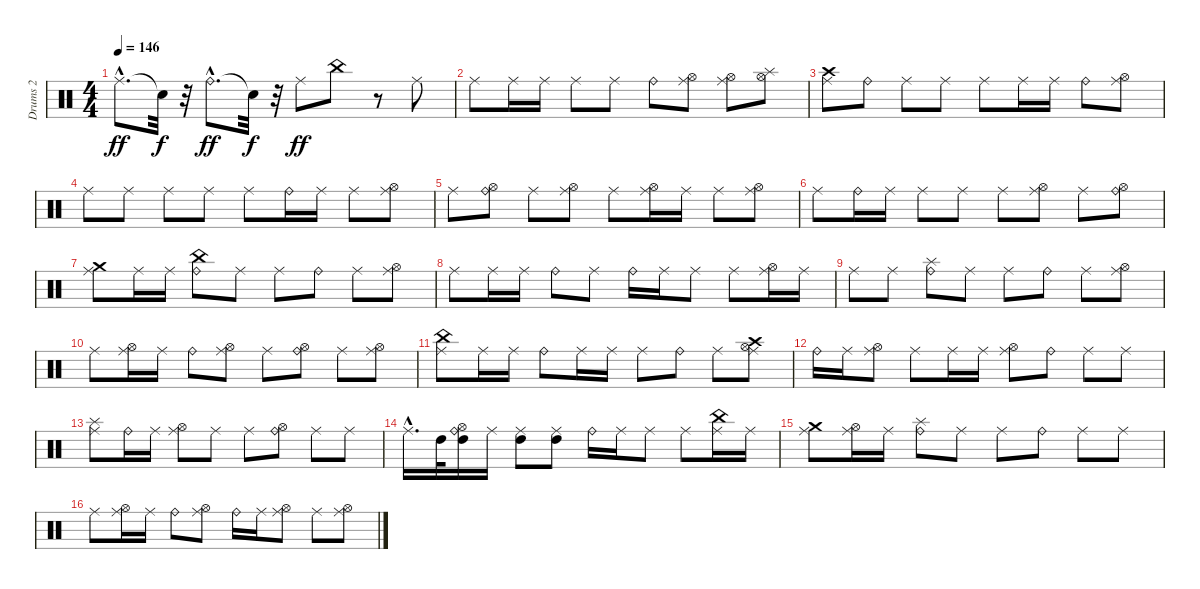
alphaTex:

\track ("Drums 2" "Drums 2") {instrument percussion}
\staff {score}
\articulation defaults
\ts (4 4)
\tempo 146
\clef neutral
\ks c "Ride (middle)"{hac}.8{d dy ff} "Snare (hit)"{t}.32{dy f}
r.32 "Ride (bell)"{hac}.8{d dy ff} "Snare (hit)"{t}.32{dy f} r.32 "Ride (middle)".8{dy ff} "China (hit)".8 r.8 "Ride (middle)".8 |
"Ride (middle)".8 "Ride (middle)".16 "Ride (middle)".16 "Ride (middle)".8 "Ride (middle)".8 "Ride (bell)".8 ("Hi-Hat (open)" "Ride (middle)").8 ("Hi-Hat (open)" "Ride (middle)").8 ("Hi-Hat (open)" "Splash (hit)").8 |
("Crash high (hit)" "Ride (middle)").8 "Ride (bell)".8 "Ride (middle)".8 "Ride (middle)".8 "Ride (middle)".8 "Ride (middle)".16 "Ride (middle)".16 "Ride (bell)".8 ("Hi-Hat (open)" "Ride (middle)").8 |
"Ride (middle)".8 "Ride (middle)".8 "Ride (middle)".8 "Ride (middle)".8 "Ride (middle)".8 "Ride (bell)".16 "Ride (middle)".16 "Ride (middle)".8 ("Hi-Hat (open)" "Ride (middle)").8 |
"Ride (middle)".8 ("Hi-Hat (open)" "Ride (bell)").8 "Ride (middle)".8 ("Hi-Hat (open)" "Ride (middle)").8 "Ride (middle)".8 ("Hi-Hat (open)" "Ride (middle)").16 "Ride (middle)".16 "Ride (middle)".8 ("Hi-Hat (open)" "Ride (middle)").8 |
"Ride (middle)".8 "Ride (bell)".16 "Ride (middle)".16 "Ride (middle)".8 "Ride (middle)".8 "Ride (middle)".8 ("Hi-Hat (open)" "Ride (middle)").8 "Ride (middle)".8 ("Hi-Hat (open)" "Ride (bell)").8 |
("Ride (middle)" "Crash medium (hit)").8 "Ride (middle)".16 "Ride (middle)".16 ("China (hit)" "Ride (bell)").8 "Ride (middle)".8 "Ride (middle)".8 "Ride (bell)".8 "Ride (middle)".8 ("Hi-Hat (open)" "Ride (middle)").8 |
"Ride (middle)".8 "Ride (middle)".16 "Ride (middle)".16 "Ride (bell)".8 "Ride (middle)".8 "Ride (bell)".16 "Ride (middle)".16 "Ride (middle)".8 "Ride (middle)".8 ("Hi-Hat (open)" "Ride (middle)").16 "Ride (middle)".16 |
"Ride (middle)".8 "Ride (middle)".8 ("Ride (bell)" "Splash (hit)").8 "Ride (middle)".8 "Ride (middle)".8 "Ride (bell)".8 "Ride (middle)".8 ("Hi-Hat (open)" "Ride (middle)").8 |
"Ride (middle)".8 ("Hi-Hat (open)" "Ride (middle)").16 "Ride (middle)".16 "Ride (bell)".8 ("Hi-Hat (open)" "Ride (middle)").8 "Ride (middle)".8 ("Hi-Hat (open)" "Ride (bell)").8 "Ride (middle)".8 ("Hi-Hat (open)" "Ride (middle)").8 |
("Ride (middle)" "China (hit)").8 "Ride (middle)".16 "Ride (middle)".16 "Ride (bell)".8 "Ride (middle)".16 "Ride (middle)".16 "Ride (middle)".8 "Ride (bell)".8 "Ride (middle)".8 ("Hi-Hat (open)" "Crash high (hit)" "Ride (middle)").8 |
"Ride (bell)".16 "Ride (middle)".16 ("Hi-Hat (open)" "Ride (middle)").8 "Ride (middle)".8 "Ride (middle)".16 "Ride (middle)".16 ("Hi-Hat (open)" "Ride (middle)").8 "Ride (bell)".8 "Ride (middle)".8 "Ride (middle)".8 |
("Ride (middle)" "Splash (hit)").8 "Ride (bell)".16 "Ride (middle)".16 ("Hi-Hat (open)" "Ride (middle)").8 "Ride (middle)".8 "Ride (middle)".8 ("Hi-Hat (open)" "Ride (bell)").8 "Ride (middle)".8 "Ride (middle)".8 |
"Ride (middle)"{hac}.16{d} "High Tom (hit)".32 ("Hi-Hat (open)" "High Tom (hit)" "Ride (bell)").16 "Ride (middle)".16 ("High Tom (hit)" "Ride (middle)").8 ("High Tom (hit)" "Ride (middle)").8 "Ride (bell)".16 "Ride (middle)".16 "Ride (middle)".8 "Ride (middle)".8 ("Ride (middle)" "China (hit)").16 "Ride (middle)".16 |
("Ride (middle)" "Crash medium (hit)").8 ("Hi-Hat (open)" "Ride (middle)").16 "Ride (middle)".16 ("Ride (bell)" "Splash (hit)").8 "Ride (middle)".8 "Ride (middle)".8 "Ride (bell)".8 "Ride (middle)".8 "Ride (middle)".8 |
"Ride (middle)".8 ("Hi-Hat (open)" "Ride (middle)").16 "Ride (middle)".16 "Ride (bell)".8 ("Hi-Hat (open)" "Ride (middle)").8 "Ride (bell)".16 "Ride (middle)".16 ("Hi-Hat (open)" "Ride (middle)").8 "Ride (middle)".8 ("Hi-Hat (open)" "Ride (middle)").8
